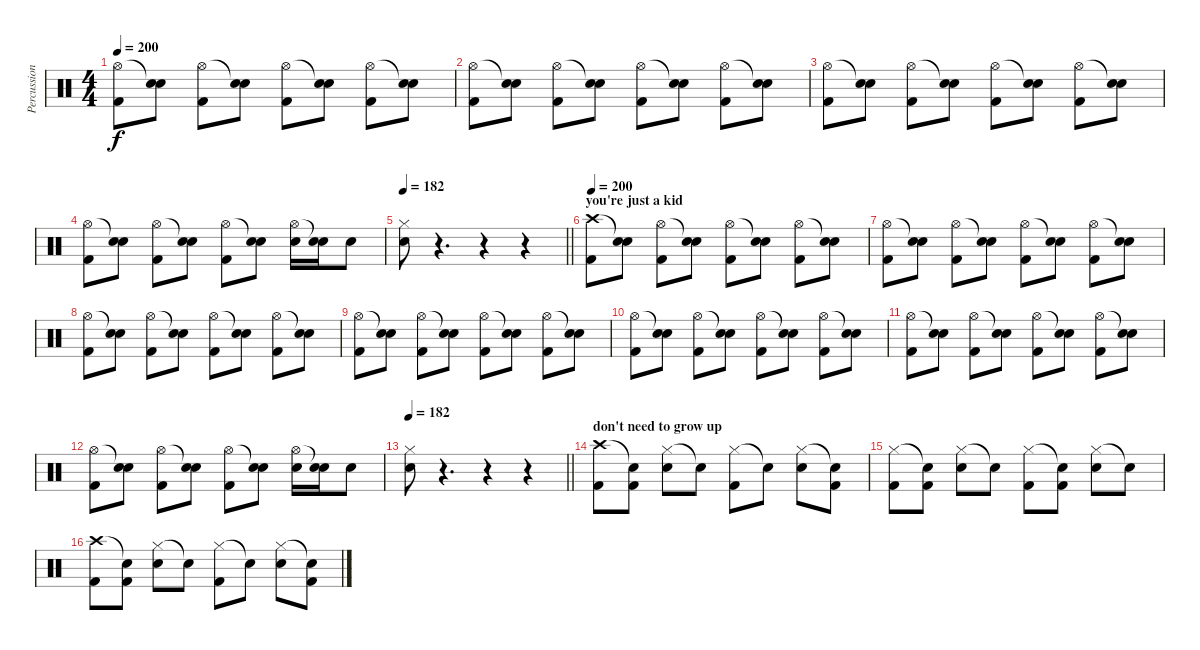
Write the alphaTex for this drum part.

\track ("Percussioni" "Percussion") {instrument percussion}
\staff {score}
\articulation defaults
\ts (4 4)
\tempo 200
\clef neutral
\ks c
("Hi-Hat (open)" "Kick (hit) 2").8{dy f} ("Snare (hit)"{t} "Snare (hit) 2").8 ("Hi-Hat (open)" "Kick (hit) 2").8 ("Snare (hit)"{t} "Snare (hit) 2").8 ("Hi-Hat (open)" "Kick (hit) 2").8 ("Snare (hit)"{t} "Snare (hit) 2").8 ("Hi-Hat (open)" "Kick (hit) 2").8 ("Snare (hit)"{t} "Snare (hit) 2").8 |
("Hi-Hat (open)" "Kick (hit) 2").8 ("Snare (hit)"{t} "Snare (hit) 2").8 ("Hi-Hat (open)" "Kick (hit) 2").8 ("Snare (hit)"{t} "Snare (hit) 2").8 ("Hi-Hat (open)" "Kick (hit) 2").8 ("Snare (hit)"{t} "Snare (hit) 2").8 ("Hi-Hat (open)" "Kick (hit) 2").8 ("Snare (hit)"{t} "Snare (hit) 2").8 |
("Hi-Hat (open)" "Kick (hit) 2").8 ("Snare (hit)"{t} "Snare (hit) 2").8 ("Hi-Hat (open)" "Kick (hit) 2").8 ("Snare (hit)"{t} "Snare (hit) 2").8 ("Hi-Hat (open)" "Kick (hit) 2").8 ("Snare (hit)"{t} "Snare (hit) 2").8 ("Hi-Hat (open)" "Kick (hit) 2").8 ("Snare (hit)"{t} "Snare (hit) 2").8 |
("Hi-Hat (open)" "Kick (hit) 2").8 ("Snare (hit)"{t} "Snare (hit) 2").8 ("Hi-Hat (open)" "Kick (hit) 2").8 ("Snare (hit)"{t} "Snare (hit) 2").8 ("Hi-Hat (open)" "Kick (hit) 2").8 ("Snare (hit)"{t} "Snare (hit) 2").8 ("Hi-Hat (open)" "Snare (hit) 2").16 ("Snare (hit)"{t} "Snare (hit) 2").16 "Snare (hit) 2".8 |
\tempo 182
\barLineRight lightlight
("Hi-Hat (closed)" "Snare (hit) 2").8 r.4{d} r.4 r.4 |
\section ("" "you're just a kid")
\tempo 200
("Crash high (hit)" "Kick (hit) 2").8 ("Snare (hit)"{t} "Snare (hit) 2").8 ("Hi-Hat (open)" "Kick (hit) 2").8 ("Snare (hit)"{t} "Snare (hit) 2").8 ("Hi-Hat (open)" "Kick (hit) 2").8 ("Snare (hit)"{t} "Snare (hit) 2").8 ("Hi-Hat (open)" "Kick (hit) 2").8 ("Snare (hit)"{t} "Snare (hit) 2").8 |
("Hi-Hat (open)" "Kick (hit) 2").8 ("Snare (hit)"{t} "Snare (hit) 2").8 ("Hi-Hat (open)" "Kick (hit) 2").8 ("Snare (hit)"{t} "Snare (hit) 2").8 ("Hi-Hat (open)" "Kick (hit) 2").8 ("Snare (hit)"{t} "Snare (hit) 2").8 ("Hi-Hat (open)" "Kick (hit) 2").8 ("Snare (hit)"{t} "Snare (hit) 2").8 |
("Hi-Hat (open)" "Kick (hit) 2").8 ("Snare (hit)"{t} "Snare (hit) 2").8 ("Hi-Hat (open)" "Kick (hit) 2").8 ("Snare (hit)"{t} "Snare (hit) 2").8 ("Hi-Hat (open)" "Kick (hit) 2").8 ("Snare (hit)"{t} "Snare (hit) 2").8 ("Hi-Hat (open)" "Kick (hit) 2").8 ("Snare (hit)"{t} "Snare (hit) 2").8 |
("Hi-Hat (open)" "Kick (hit) 2").8 ("Snare (hit)"{t} "Snare (hit) 2").8 ("Hi-Hat (open)" "Kick (hit) 2").8 ("Snare (hit)"{t} "Snare (hit) 2").8 ("Hi-Hat (open)" "Kick (hit) 2").8 ("Snare (hit)"{t} "Snare (hit) 2").8 ("Hi-Hat (open)" "Kick (hit) 2").8 ("Snare (hit)"{t} "Snare (hit) 2").8 |
("Hi-Hat (open)" "Kick (hit) 2").8 ("Snare (hit)"{t} "Snare (hit) 2").8 ("Hi-Hat (open)" "Kick (hit) 2").8 ("Snare (hit)"{t} "Snare (hit) 2").8 ("Hi-Hat (open)" "Kick (hit) 2").8 ("Snare (hit)"{t} "Snare (hit) 2").8 ("Hi-Hat (open)" "Kick (hit) 2").8 ("Snare (hit)"{t} "Snare (hit) 2").8 |
("Hi-Hat (open)" "Kick (hit) 2").8 ("Snare (hit)"{t} "Snare (hit) 2").8 ("Hi-Hat (open)" "Kick (hit) 2").8 ("Snare (hit)"{t} "Snare (hit) 2").8 ("Hi-Hat (open)" "Kick (hit) 2").8 ("Snare (hit)"{t} "Snare (hit) 2").8 ("Hi-Hat (open)" "Kick (hit) 2").8 ("Snare (hit)"{t} "Snare (hit) 2").8 |
("Hi-Hat (open)" "Kick (hit) 2").8 ("Snare (hit)"{t} "Snare (hit) 2").8 ("Hi-Hat (open)" "Kick (hit) 2").8 ("Snare (hit)"{t} "Snare (hit) 2").8 ("Hi-Hat (open)" "Kick (hit) 2").8 ("Snare (hit)"{t} "Snare (hit) 2").8 ("Hi-Hat (open)" "Snare (hit) 2").16 ("Snare (hit)"{t} "Snare (hit) 2").16 "Snare (hit) 2".8 |
\tempo 182
\barLineRight lightlight
("Hi-Hat (closed)" "Snare (hit) 2").8 r.4{d} r.4 r.4 |
\section ("" "don't need to grow up")
("Crash high (hit)" "Kick (hit) 2").8 ("Snare (hit)"{t} "Kick (hit) 2").8 ("Hi-Hat (closed)" "Snare (hit) 2").8 "Snare (hit)"{t}.8 ("Hi-Hat (closed)" "Kick (hit) 2").8 "Snare (hit)"{t}.8 ("Hi-Hat (closed)" "Snare (hit) 2").8 ("Snare (hit)"{t} "Kick (hit) 2").8 |
("Hi-Hat (closed)" "Kick (hit) 2").8 ("Snare (hit)"{t} "Kick (hit) 2").8 ("Hi-Hat (closed)" "Snare (hit) 2").8 "Snare (hit)"{t}.8 ("Hi-Hat (closed)" "Kick (hit) 2").8 ("Snare (hit)"{t} "Kick (hit) 2").8 ("Hi-Hat (closed)" "Snare (hit) 2").8 "Snare (hit)"{t}.8 |
("Crash high (hit)" "Kick (hit) 2").8 ("Snare (hit)"{t} "Kick (hit) 2").8 ("Hi-Hat (closed)" "Snare (hit) 2").8 "Snare (hit)"{t}.8 ("Hi-Hat (closed)" "Kick (hit) 2").8 "Snare (hit)"{t}.8 ("Hi-Hat (closed)" "Snare (hit) 2").8 ("Snare (hit)"{t} "Kick (hit) 2").8
